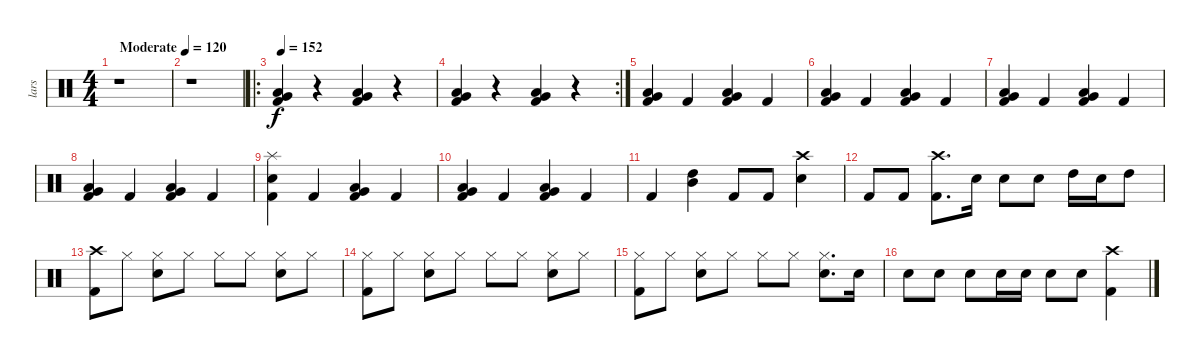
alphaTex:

\track ("lars" "lars") {instrument percussion}
\staff {score}
\articulation defaults
\ts (4 4)
\tempo (120 "Moderate")
\clef neutral
\ks c
r.1{dy f} |
r.1 |
\ro
\tempo 152
("Very Low Tom (hit)" "Low Floor Tom (hit)" "Kick (hit) 2").4 r.4 ("Very Low Tom (hit)" "Low Floor Tom (hit)" "Kick (hit) 2").4 r.4 |
\rc 2
("Very Low Tom (hit)" "Low Floor Tom (hit)" "Kick (hit) 2").4 r.4 ("Very Low Tom (hit)" "Low Floor Tom (hit)" "Kick (hit) 2").4 r.4 |
("Very Low Tom (hit)" "Low Floor Tom (hit)" "Kick (hit) 2").4 "Kick (hit) 2".4 ("Very Low Tom (hit)" "Low Floor Tom (hit)" "Kick (hit) 2").4 "Kick (hit) 2".4 |
("Very Low Tom (hit)" "Low Floor Tom (hit)" "Kick (hit) 2").4 "Kick (hit) 2".4 ("Very Low Tom (hit)" "Low Floor Tom (hit)" "Kick (hit) 2").4 "Kick (hit) 2".4 |
("Very Low Tom (hit)" "Low Floor Tom (hit)" "Kick (hit) 2").4 "Kick (hit) 2".4 ("Very Low Tom (hit)" "Low Floor Tom (hit)" "Kick (hit) 2").4 "Kick (hit) 2".4 |
("Very Low Tom (hit)" "Low Floor Tom (hit)" "Kick (hit) 2").4 "Kick (hit) 2".4 ("Very Low Tom (hit)" "Low Floor Tom (hit)" "Kick (hit) 2").4 "Kick (hit) 2".4 |
("Snare (hit) 2" "Kick (hit) 2" "Splash (hit)").4 "Kick (hit) 2".4 ("Very Low Tom (hit)" "Low Floor Tom (hit)" "Kick (hit) 2").4 "Kick (hit) 2".4 |
("Very Low Tom (hit)" "Low Floor Tom (hit)" "Kick (hit) 2").4 "Kick (hit) 2".4 ("Very Low Tom (hit)" "Low Floor Tom (hit)" "Kick (hit) 2").4 "Kick (hit) 2".4 |
"Kick (hit) 2".4 ("High Tom (hit)" "Mid Tom (hit)").4 "Kick (hit) 2".8 "Kick (hit) 2".8 ("Crash high (hit)" "Snare (hit) 2").4 |
"Kick (hit) 2".8 "Kick (hit) 2".8 ("Crash high (hit)" "Kick (hit) 2").8{d} "Snare (hit) 2".16 "Snare (hit) 2".8 "Snare (hit) 2".8 "High Tom (hit)".16 "Snare (hit) 2".16 "High Tom (hit)".8 |
("Crash high (hit)" "Kick (hit) 2").8 "Hi-Hat (closed)".8 ("Hi-Hat (closed)" "Snare (hit) 2").8 "Hi-Hat (closed)".8 "Hi-Hat (closed)".8 "Hi-Hat (closed)".8 ("Hi-Hat (closed)" "Snare (hit) 2").8 "Hi-Hat (closed)".8 |
("Hi-Hat (closed)" "Kick (hit) 2").8 "Hi-Hat (closed)".8 ("Hi-Hat (closed)" "Snare (hit) 2").8 "Hi-Hat (closed)".8 "Hi-Hat (closed)".8 "Hi-Hat (closed)".8 ("Hi-Hat (closed)" "Snare (hit) 2").8 "Hi-Hat (closed)".8 |
("Hi-Hat (closed)" "Kick (hit) 2").8 "Hi-Hat (closed)".8 ("Hi-Hat (closed)" "Snare (hit) 2").8 "Hi-Hat (closed)".8 "Hi-Hat (closed)".8 "Hi-Hat (closed)".8 ("Hi-Hat (closed)" "Snare (hit) 2").8{d} "Snare (hit) 2".16 |
"Snare (hit) 2".8 "Snare (hit) 2".8 "Snare (hit) 2".8 "Snare (hit) 2".16 "Snare (hit) 2".16 "Snare (hit) 2".8 "Snare (hit) 2".8 ("Crash high (hit)" "Kick (hit) 2").4
